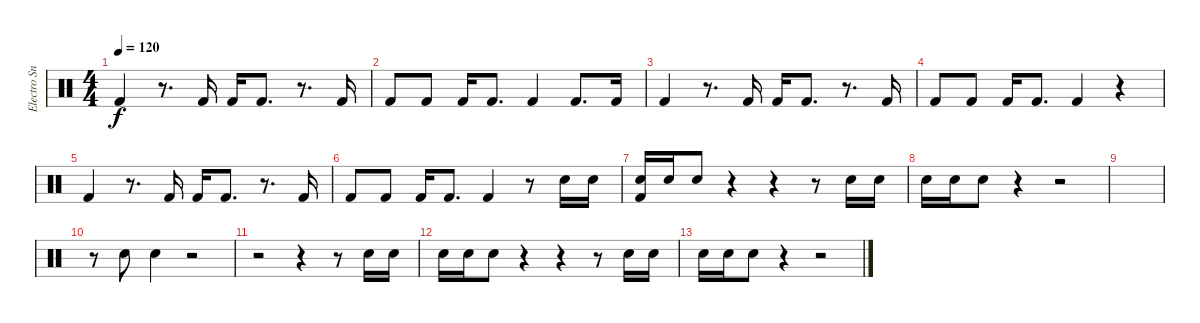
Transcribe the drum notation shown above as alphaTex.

\track ("Electro Snare" "Electro Sn") {instrument percussion}
\staff {score}
\articulation defaults
\ts (4 4)
\tempo 120
\clef neutral
\ks c "Kick (hit) 2".4{dy f}
r.8{d} "Kick (hit) 2".16 "Kick (hit) 2".16 "Kick (hit) 2".8{d} r.8{d} "Kick (hit) 2".16 |
"Kick (hit) 2".8 "Kick (hit) 2".8 "Kick (hit) 2".16 "Kick (hit) 2".8{d} "Kick (hit) 2".4 "Kick (hit) 2".8{d} "Kick (hit) 2".16 |
"Kick (hit) 2".4 r.8{d} "Kick (hit) 2".16 "Kick (hit) 2".16 "Kick (hit) 2".8{d} r.8{d} "Kick (hit) 2".16 |
"Kick (hit) 2".8 "Kick (hit) 2".8 "Kick (hit) 2".16 "Kick (hit) 2".8{d} "Kick (hit) 2".4 r.4 |
"Kick (hit) 2".4 r.8{d} "Kick (hit) 2".16 "Kick (hit) 2".16 "Kick (hit) 2".8{d} r.8{d} "Kick (hit) 2".16 |
"Kick (hit) 2".8 "Kick (hit) 2".8 "Kick (hit) 2".16 "Kick (hit) 2".8{d} "Kick (hit) 2".4 r.8 "Electric Snare (hit)".16 "Electric Snare (hit)".16 |
("Electric Snare (hit)" "Kick (hit) 2").16 "Electric Snare (hit)".16 "Electric Snare (hit)".8 r.4 r.4 r.8 "Electric Snare (hit)".16 "Electric Snare (hit)".16 |
"Electric Snare (hit)".16 "Electric Snare (hit)".16 "Electric Snare (hit)".8 r.4 r.2 |
|
r.8 "Electric Snare (hit)".8 "Electric Snare (hit)".4 r.2 |
r.2 r.4 r.8 "Electric Snare (hit)".16 "Electric Snare (hit)".16 |
"Electric Snare (hit)".16 "Electric Snare (hit)".16 "Electric Snare (hit)".8 r.4 r.4 r.8 "Electric Snare (hit)".16 "Electric Snare (hit)".16 |
"Electric Snare (hit)".16 "Electric Snare (hit)".16 "Electric Snare (hit)".8 r.4 r.2
